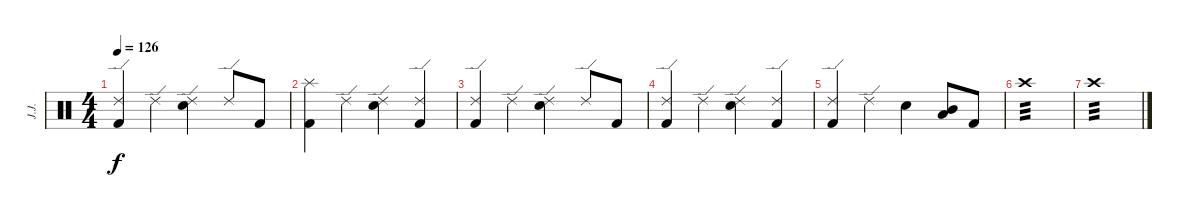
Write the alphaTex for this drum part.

\track ("J.J." "J.J.") {instrument percussion}
\staff {score}
\articulation defaults
\ts (4 4)
\tempo 126
\clef neutral
\ks c
("Ride (edge) 2" "Kick (hit) 2").4{dy f} "Ride (edge) 2".4 ("Ride (edge) 2" "Electric Snare (hit)").4 "Ride (edge) 2".8 "Kick (hit) 2".8 |
("Splash (hit)" "Kick (hit) 2").4 "Ride (edge) 2".4 ("Ride (edge) 2" "Electric Snare (hit)").4 ("Ride (edge) 2" "Kick (hit) 2").4 |
("Ride (edge) 2" "Kick (hit) 2").4 "Ride (edge) 2".4 ("Ride (edge) 2" "Electric Snare (hit)").4 "Ride (edge) 2".8 "Kick (hit) 2".8 |
("Ride (edge) 2" "Kick (hit) 2").4 "Ride (edge) 2".4 ("Ride (edge) 2" "Electric Snare (hit)").4 ("Ride (edge) 2" "Kick (hit) 2").4 |
("Ride (edge) 2" "Kick (hit) 2").4 "Ride (edge) 2".4 "Electric Snare (hit)".4 ("Mid Tom (hit)" "Low Tom (hit)").8 "Kick (hit) 2".8 |
"Crash high (hit)".1{tp 3 volume 0} |
"Crash high (hit)".1{tp 3}
